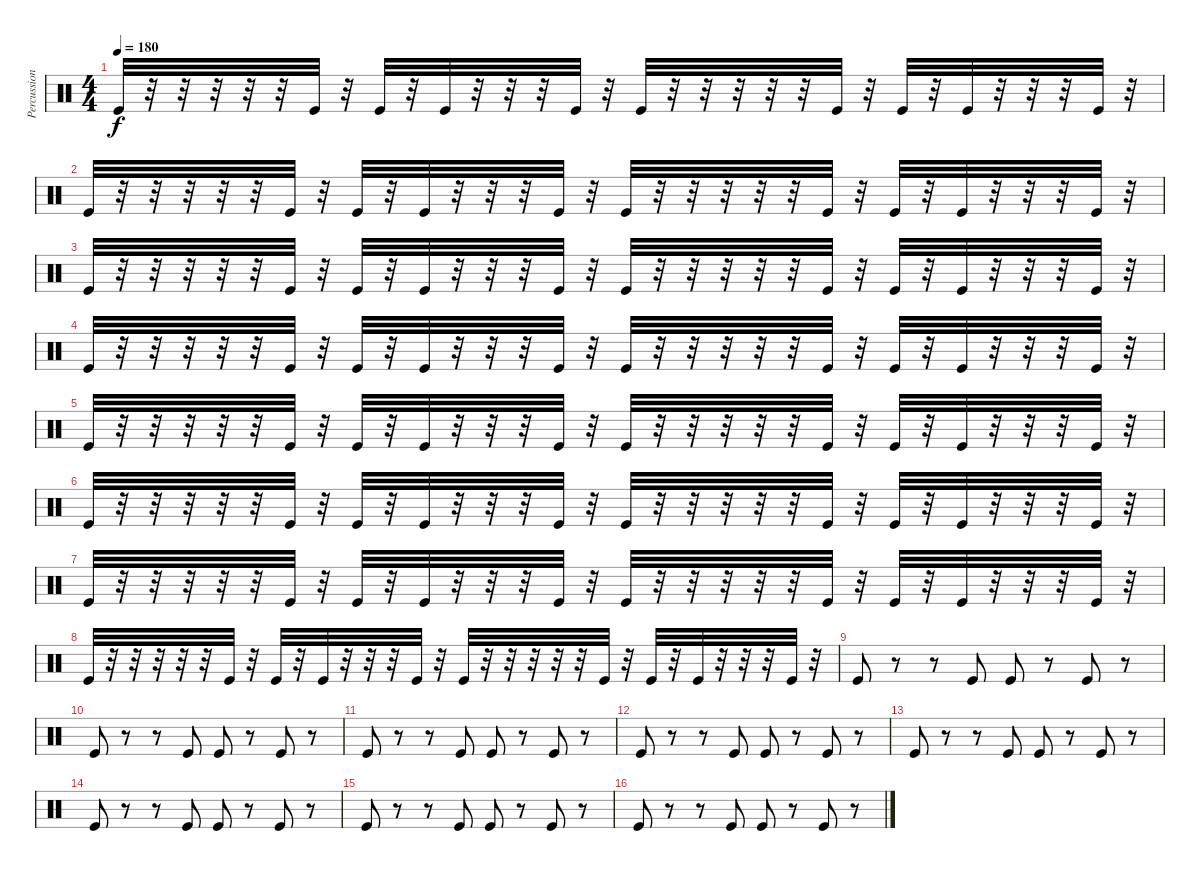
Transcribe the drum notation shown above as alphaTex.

\track ("Percussion" "Percussion") {instrument percussion}
\staff {score}
\articulation defaults
\ts (4 4)
\tempo 180
\clef neutral
\ks c "Kick (hit)".32{dy f}
r.32 r.32 r.32 r.32 r.32 "Kick (hit)".32 r.32 "Kick (hit)".32 r.32 "Kick (hit)".32 r.32 r.32 r.32 "Kick (hit)".32 r.32 "Kick (hit)".32 r.32 r.32 r.32 r.32 r.32 "Kick (hit)".32 r.32 "Kick (hit)".32 r.32 "Kick (hit)".32 r.32 r.32 r.32 "Kick (hit)".32 r.32 |
"Kick (hit)".32 r.32 r.32 r.32 r.32 r.32 "Kick (hit)".32 r.32 "Kick (hit)".32 r.32 "Kick (hit)".32 r.32 r.32 r.32 "Kick (hit)".32 r.32 "Kick (hit)".32 r.32 r.32 r.32 r.32 r.32 "Kick (hit)".32 r.32 "Kick (hit)".32 r.32 "Kick (hit)".32 r.32 r.32 r.32 "Kick (hit)".32 r.32 |
"Kick (hit)".32 r.32 r.32 r.32 r.32 r.32 "Kick (hit)".32 r.32 "Kick (hit)".32 r.32 "Kick (hit)".32 r.32 r.32 r.32 "Kick (hit)".32 r.32 "Kick (hit)".32 r.32 r.32 r.32 r.32 r.32 "Kick (hit)".32 r.32 "Kick (hit)".32 r.32 "Kick (hit)".32 r.32 r.32 r.32 "Kick (hit)".32 r.32 |
"Kick (hit)".32 r.32 r.32 r.32 r.32 r.32 "Kick (hit)".32 r.32 "Kick (hit)".32 r.32 "Kick (hit)".32 r.32 r.32 r.32 "Kick (hit)".32 r.32 "Kick (hit)".32 r.32 r.32 r.32 r.32 r.32 "Kick (hit)".32 r.32 "Kick (hit)".32 r.32 "Kick (hit)".32 r.32 r.32 r.32 "Kick (hit)".32 r.32 |
"Kick (hit)".32 r.32 r.32 r.32 r.32 r.32 "Kick (hit)".32 r.32 "Kick (hit)".32 r.32 "Kick (hit)".32 r.32 r.32 r.32 "Kick (hit)".32 r.32 "Kick (hit)".32 r.32 r.32 r.32 r.32 r.32 "Kick (hit)".32 r.32 "Kick (hit)".32 r.32 "Kick (hit)".32 r.32 r.32 r.32 "Kick (hit)".32 r.32 |
"Kick (hit)".32 r.32 r.32 r.32 r.32 r.32 "Kick (hit)".32 r.32 "Kick (hit)".32 r.32 "Kick (hit)".32 r.32 r.32 r.32 "Kick (hit)".32 r.32 "Kick (hit)".32 r.32 r.32 r.32 r.32 r.32 "Kick (hit)".32 r.32 "Kick (hit)".32 r.32 "Kick (hit)".32 r.32 r.32 r.32 "Kick (hit)".32 r.32 |
"Kick (hit)".32 r.32 r.32 r.32 r.32 r.32 "Kick (hit)".32 r.32 "Kick (hit)".32 r.32 "Kick (hit)".32 r.32 r.32 r.32 "Kick (hit)".32 r.32 "Kick (hit)".32 r.32 r.32 r.32 r.32 r.32 "Kick (hit)".32 r.32 "Kick (hit)".32 r.32 "Kick (hit)".32 r.32 r.32 r.32 "Kick (hit)".32 r.32 |
"Kick (hit)".32 r.32 r.32 r.32 r.32 r.32 "Kick (hit)".32 r.32 "Kick (hit)".32 r.32 "Kick (hit)".32 r.32 r.32 r.32 "Kick (hit)".32 r.32 "Kick (hit)".32 r.32 r.32 r.32 r.32 r.32 "Kick (hit)".32 r.32 "Kick (hit)".32 r.32 "Kick (hit)".32 r.32 r.32 r.32 "Kick (hit)".32 r.32 |
"Kick (hit)".8 r.8 r.8 "Kick (hit)".8 "Kick (hit)".8 r.8 "Kick (hit)".8 r.8 |
"Kick (hit)".8 r.8 r.8 "Kick (hit)".8 "Kick (hit)".8 r.8 "Kick (hit)".8 r.8 |
"Kick (hit)".8 r.8 r.8 "Kick (hit)".8 "Kick (hit)".8 r.8 "Kick (hit)".8 r.8 |
"Kick (hit)".8 r.8 r.8 "Kick (hit)".8 "Kick (hit)".8 r.8 "Kick (hit)".8 r.8 |
"Kick (hit)".8 r.8 r.8 "Kick (hit)".8 "Kick (hit)".8 r.8 "Kick (hit)".8 r.8 |
"Kick (hit)".8 r.8 r.8 "Kick (hit)".8 "Kick (hit)".8 r.8 "Kick (hit)".8 r.8 |
"Kick (hit)".8 r.8 r.8 "Kick (hit)".8 "Kick (hit)".8 r.8 "Kick (hit)".8 r.8 |
"Kick (hit)".8 r.8 r.8 "Kick (hit)".8 "Kick (hit)".8 r.8 "Kick (hit)".8 r.8
